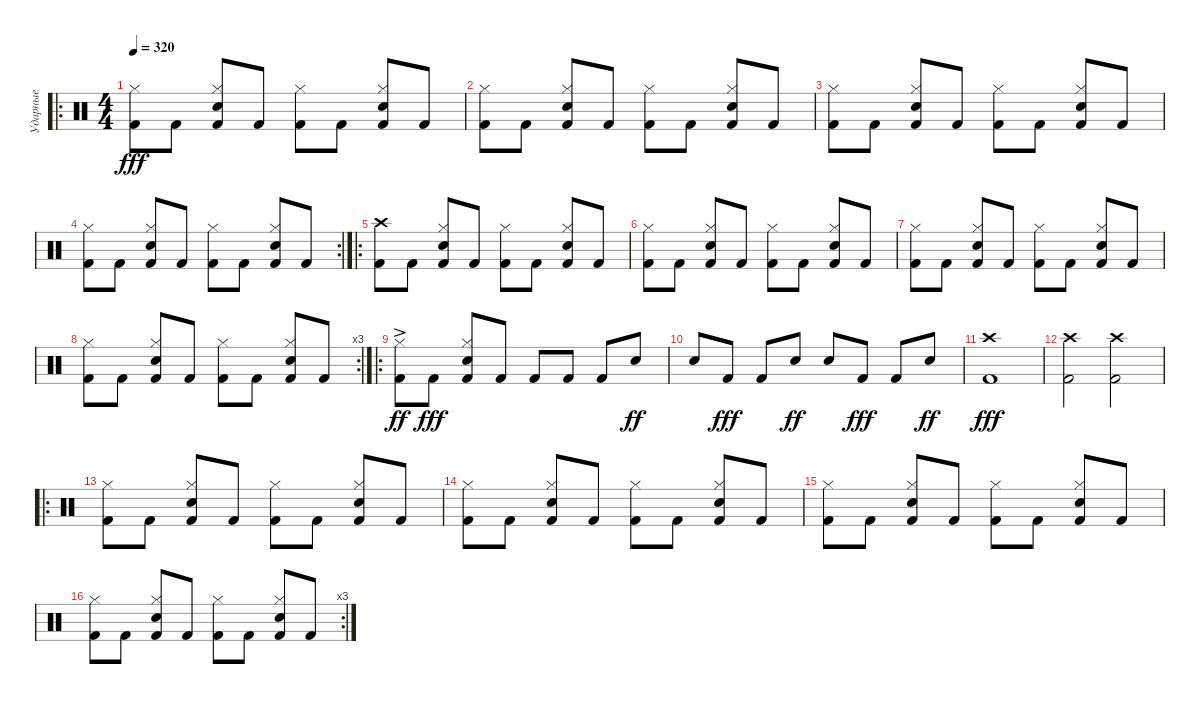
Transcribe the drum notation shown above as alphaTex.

\track ("Ударные" "Ударные") {instrument percussion}
\staff {score}
\articulation defaults
\ro
\ts (4 4)
\tempo 320
\clef neutral
\ks c
("Kick (hit) 2" "Hi-Hat (closed)").8{dy fff} "Kick (hit) 2".8 ("Kick (hit) 2" "Snare (hit) 2" "Hi-Hat (closed)").8 "Kick (hit) 2".8 ("Kick (hit) 2" "Hi-Hat (closed)").8 "Kick (hit) 2".8 ("Kick (hit) 2" "Snare (hit) 2" "Hi-Hat (closed)").8 "Kick (hit) 2".8 |
("Kick (hit) 2" "Hi-Hat (closed)").8 "Kick (hit) 2".8 ("Kick (hit) 2" "Snare (hit) 2" "Hi-Hat (closed)").8 "Kick (hit) 2".8 ("Kick (hit) 2" "Hi-Hat (closed)").8 "Kick (hit) 2".8 ("Kick (hit) 2" "Snare (hit) 2" "Hi-Hat (closed)").8 "Kick (hit) 2".8 |
("Kick (hit) 2" "Hi-Hat (closed)").8 "Kick (hit) 2".8 ("Kick (hit) 2" "Snare (hit) 2" "Hi-Hat (closed)").8 "Kick (hit) 2".8 ("Kick (hit) 2" "Hi-Hat (closed)").8 "Kick (hit) 2".8 ("Kick (hit) 2" "Snare (hit) 2" "Hi-Hat (closed)").8 "Kick (hit) 2".8 |
\rc 2
("Kick (hit) 2" "Hi-Hat (closed)").8 "Kick (hit) 2".8 ("Kick (hit) 2" "Snare (hit) 2" "Hi-Hat (closed)").8 "Kick (hit) 2".8 ("Kick (hit) 2" "Hi-Hat (closed)").8 "Kick (hit) 2".8 ("Kick (hit) 2" "Snare (hit) 2" "Hi-Hat (closed)").8 "Kick (hit) 2".8 |
\ro
("Kick (hit) 2" "Crash high (hit)").8 "Kick (hit) 2".8 ("Kick (hit) 2" "Snare (hit) 2" "Hi-Hat (closed)").8 "Kick (hit) 2".8 ("Kick (hit) 2" "Hi-Hat (closed)").8 "Kick (hit) 2".8 ("Kick (hit) 2" "Snare (hit) 2" "Hi-Hat (closed)").8 "Kick (hit) 2".8 |
("Kick (hit) 2" "Hi-Hat (closed)").8 "Kick (hit) 2".8 ("Kick (hit) 2" "Snare (hit) 2" "Hi-Hat (closed)").8 "Kick (hit) 2".8 ("Kick (hit) 2" "Hi-Hat (closed)").8 "Kick (hit) 2".8 ("Kick (hit) 2" "Snare (hit) 2" "Hi-Hat (closed)").8 "Kick (hit) 2".8 |
("Kick (hit) 2" "Hi-Hat (closed)").8 "Kick (hit) 2".8 ("Kick (hit) 2" "Snare (hit) 2" "Hi-Hat (closed)").8 "Kick (hit) 2".8 ("Kick (hit) 2" "Hi-Hat (closed)").8 "Kick (hit) 2".8 ("Kick (hit) 2" "Snare (hit) 2" "Hi-Hat (closed)").8 "Kick (hit) 2".8 |
\rc 3
("Kick (hit) 2" "Hi-Hat (closed)").8 "Kick (hit) 2".8 ("Kick (hit) 2" "Snare (hit) 2" "Hi-Hat (closed)").8 "Kick (hit) 2".8 ("Kick (hit) 2" "Hi-Hat (closed)").8 "Kick (hit) 2".8 ("Kick (hit) 2" "Snare (hit) 2" "Hi-Hat (closed)").8 "Kick (hit) 2".8 |
\ro
("Kick (hit) 2" "Hi-Hat (closed)"{ac}).8{dy ff} "Kick (hit) 2".8{dy fff} ("Kick (hit) 2" "Snare (hit) 2" "Hi-Hat (closed)").8 "Kick (hit) 2".8 "Kick (hit) 2".8 "Kick (hit) 2".8 "Kick (hit) 2".8 "Snare (hit) 2".8{dy ff} |
"Snare (hit) 2".8 "Kick (hit) 2".8{dy fff} "Kick (hit) 2".8 "Snare (hit) 2".8{dy ff} "Snare (hit) 2".8 "Kick (hit) 2".8{dy fff} "Kick (hit) 2".8 "Snare (hit) 2".8{dy ff} |
("Kick (hit) 2" "Crash high (hit)").1{dy fff} |
("Kick (hit) 2" "Crash high (hit)").2 ("Kick (hit) 2" "Crash high (hit)").2 |
\ro
("Kick (hit) 2" "Hi-Hat (closed)").8 "Kick (hit) 2".8 ("Kick (hit) 2" "Snare (hit) 2" "Hi-Hat (closed)").8 "Kick (hit) 2".8 ("Kick (hit) 2" "Hi-Hat (closed)").8 "Kick (hit) 2".8 ("Kick (hit) 2" "Snare (hit) 2" "Hi-Hat (closed)").8 "Kick (hit) 2".8 |
("Kick (hit) 2" "Hi-Hat (closed)").8 "Kick (hit) 2".8 ("Kick (hit) 2" "Snare (hit) 2" "Hi-Hat (closed)").8 "Kick (hit) 2".8 ("Kick (hit) 2" "Hi-Hat (closed)").8 "Kick (hit) 2".8 ("Kick (hit) 2" "Snare (hit) 2" "Hi-Hat (closed)").8 "Kick (hit) 2".8 |
("Kick (hit) 2" "Hi-Hat (closed)").8 "Kick (hit) 2".8 ("Kick (hit) 2" "Snare (hit) 2" "Hi-Hat (closed)").8 "Kick (hit) 2".8 ("Kick (hit) 2" "Hi-Hat (closed)").8 "Kick (hit) 2".8 ("Kick (hit) 2" "Snare (hit) 2" "Hi-Hat (closed)").8 "Kick (hit) 2".8 |
\rc 3
("Kick (hit) 2" "Hi-Hat (closed)").8 "Kick (hit) 2".8 ("Kick (hit) 2" "Snare (hit) 2" "Hi-Hat (closed)").8 "Kick (hit) 2".8 ("Kick (hit) 2" "Hi-Hat (closed)").8 "Kick (hit) 2".8 ("Kick (hit) 2" "Snare (hit) 2" "Hi-Hat (closed)").8 "Kick (hit) 2".8
